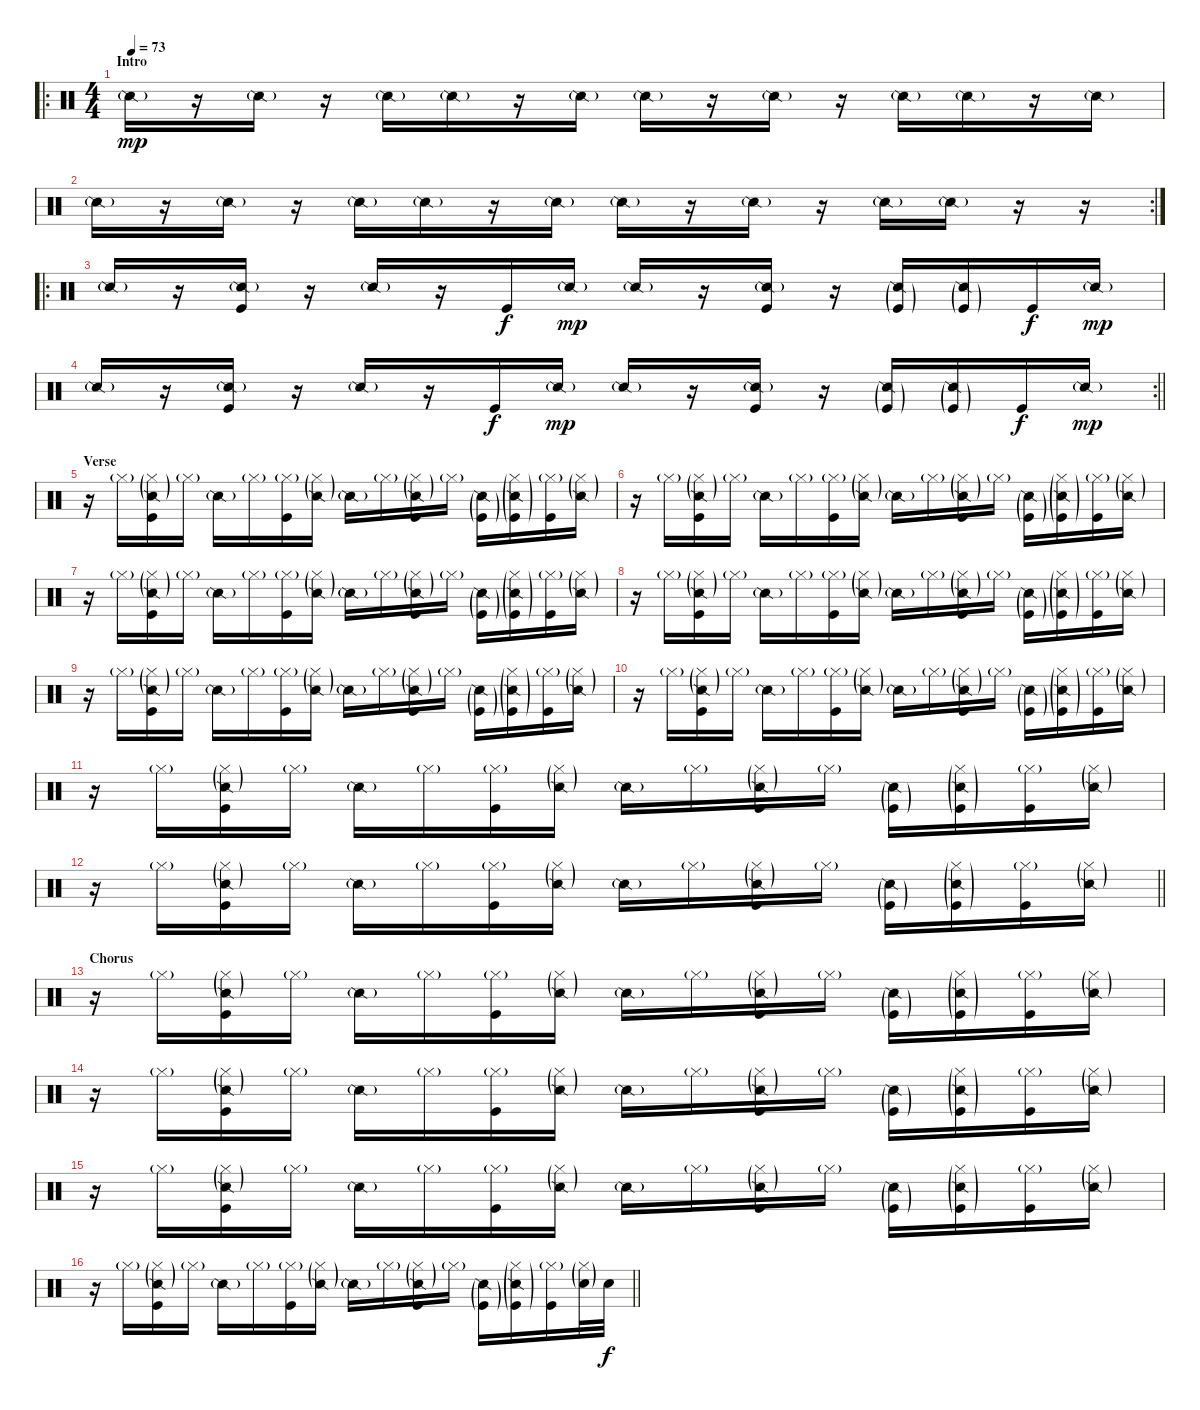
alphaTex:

\track "" {instrument percussion}
\staff {score}
\articulation defaults
\ro
\ts (4 4)
\section ("" "Intro")
\tempo 73
\clef neutral
\ks c "Snare (side stick) 2"{g}.16{dy mp}
r.16 "Snare (side stick) 2"{g}.16 r.16 "Snare (side stick) 2"{g}.16 "Snare (side stick) 2"{g}.16 r.16 "Snare (side stick) 2"{g}.16 "Snare (side stick) 2"{g}.16 r.16 "Snare (side stick) 2"{g}.16 r.16 "Snare (side stick) 2"{g}.16 "Snare (side stick) 2"{g}.16 r.16 "Snare (side stick) 2"{g}.16 |
\rc 2 "Snare (side stick) 2"{g}.16
r.16 "Snare (side stick) 2"{g}.16 r.16 "Snare (side stick) 2"{g}.16 "Snare (side stick) 2"{g}.16 r.16 "Snare (side stick) 2"{g}.16 "Snare (side stick) 2"{g}.16 r.16 "Snare (side stick) 2"{g}.16 r.16 "Snare (side stick) 2"{g}.16 "Snare (side stick) 2"{g}.16 r.16 r.16 |
\ro "Snare (side stick) 2"{g}.16
r.16 ("Kick (hit)" "Snare (side stick) 2"{g}).16 r.16 "Snare (side stick) 2"{g}.16 r.16 "Kick (hit)".16{dy f} "Snare (side stick) 2"{g}.16{dy mp} "Snare (side stick) 2"{g}.16 r.16 ("Kick (hit)" "Snare (side stick) 2"{g}).16 r.16 ("Kick (hit)"{g} "Snare (side stick) 2"{g}).16 ("Kick (hit)"{g} "Snare (side stick) 2"{g}).16 "Kick (hit)".16{dy f} "Snare (side stick) 2"{g}.16{dy mp} |
\rc 2
\barLineRight lightlight "Snare (side stick) 2"{g}.16
r.16 ("Kick (hit)" "Snare (side stick) 2"{g}).16 r.16 "Snare (side stick) 2"{g}.16 r.16 "Kick (hit)".16{dy f} "Snare (side stick) 2"{g}.16{dy mp} "Snare (side stick) 2"{g}.16 r.16 ("Kick (hit)" "Snare (side stick) 2"{g}).16 r.16 ("Kick (hit)"{g} "Snare (side stick) 2"{g}).16 ("Kick (hit)"{g} "Snare (side stick) 2"{g}).16 "Kick (hit)".16{dy f} "Snare (side stick) 2"{g}.16{dy mp} |
\section ("" "Verse")
r.16 "Hi-Hat (closed)"{g}.16 ("Hi-Hat (closed)"{g} "Kick (hit)" "Snare (side stick) 2"{g}).16 "Hi-Hat (closed)"{g}.16 "Snare (side stick) 2"{g}.16 "Hi-Hat (closed)"{g}.16 ("Hi-Hat (closed)"{g} "Kick (hit)").16 ("Hi-Hat (closed)"{g} "Snare (side stick) 2"{g}).16 "Snare (side stick) 2"{g}.16 "Hi-Hat (closed)"{g}.16 ("Hi-Hat (closed)"{g} "Kick (hit)" "Snare (side stick) 2"{g}).16 "Hi-Hat (closed)"{g}.16 ("Kick (hit)"{g} "Snare (side stick) 2"{g}).16 ("Hi-Hat (closed)"{g} "Kick (hit)"{g} "Snare (side stick) 2"{g}).16 ("Hi-Hat (closed)"{g} "Kick (hit)").16 ("Hi-Hat (closed)"{g} "Snare (side stick) 2"{g}).16 |
r.16 "Hi-Hat (closed)"{g}.16 ("Hi-Hat (closed)"{g} "Kick (hit)" "Snare (side stick) 2"{g}).16 "Hi-Hat (closed)"{g}.16 "Snare (side stick) 2"{g}.16 "Hi-Hat (closed)"{g}.16 ("Hi-Hat (closed)"{g} "Kick (hit)").16 ("Hi-Hat (closed)"{g} "Snare (side stick) 2"{g}).16 "Snare (side stick) 2"{g}.16 "Hi-Hat (closed)"{g}.16 ("Hi-Hat (closed)"{g} "Kick (hit)" "Snare (side stick) 2"{g}).16 "Hi-Hat (closed)"{g}.16 ("Kick (hit)"{g} "Snare (side stick) 2"{g}).16 ("Hi-Hat (closed)"{g} "Kick (hit)"{g} "Snare (side stick) 2"{g}).16 ("Hi-Hat (closed)"{g} "Kick (hit)").16 ("Hi-Hat (closed)"{g} "Snare (side stick) 2"{g}).16 |
r.16 "Hi-Hat (closed)"{g}.16 ("Hi-Hat (closed)"{g} "Kick (hit)" "Snare (side stick) 2"{g}).16 "Hi-Hat (closed)"{g}.16 "Snare (side stick) 2"{g}.16 "Hi-Hat (closed)"{g}.16 ("Hi-Hat (closed)"{g} "Kick (hit)").16 ("Hi-Hat (closed)"{g} "Snare (side stick) 2"{g}).16 "Snare (side stick) 2"{g}.16 "Hi-Hat (closed)"{g}.16 ("Hi-Hat (closed)"{g} "Kick (hit)" "Snare (side stick) 2"{g}).16 "Hi-Hat (closed)"{g}.16 ("Kick (hit)"{g} "Snare (side stick) 2"{g}).16 ("Hi-Hat (closed)"{g} "Kick (hit)"{g} "Snare (side stick) 2"{g}).16 ("Hi-Hat (closed)"{g} "Kick (hit)").16 ("Hi-Hat (closed)"{g} "Snare (side stick) 2"{g}).16 |
r.16 "Hi-Hat (closed)"{g}.16 ("Hi-Hat (closed)"{g} "Kick (hit)" "Snare (side stick) 2"{g}).16 "Hi-Hat (closed)"{g}.16 "Snare (side stick) 2"{g}.16 "Hi-Hat (closed)"{g}.16 ("Hi-Hat (closed)"{g} "Kick (hit)").16 ("Hi-Hat (closed)"{g} "Snare (side stick) 2"{g}).16 "Snare (side stick) 2"{g}.16 "Hi-Hat (closed)"{g}.16 ("Hi-Hat (closed)"{g} "Kick (hit)" "Snare (side stick) 2"{g}).16 "Hi-Hat (closed)"{g}.16 ("Kick (hit)"{g} "Snare (side stick) 2"{g}).16 ("Hi-Hat (closed)"{g} "Kick (hit)"{g} "Snare (side stick) 2"{g}).16 ("Hi-Hat (closed)"{g} "Kick (hit)").16 ("Hi-Hat (closed)"{g} "Snare (side stick) 2"{g}).16 |
r.16 "Hi-Hat (closed)"{g}.16 ("Hi-Hat (closed)"{g} "Kick (hit)" "Snare (side stick) 2"{g}).16 "Hi-Hat (closed)"{g}.16 "Snare (side stick) 2"{g}.16 "Hi-Hat (closed)"{g}.16 ("Hi-Hat (closed)"{g} "Kick (hit)").16 ("Hi-Hat (closed)"{g} "Snare (side stick) 2"{g}).16 "Snare (side stick) 2"{g}.16 "Hi-Hat (closed)"{g}.16 ("Hi-Hat (closed)"{g} "Kick (hit)" "Snare (side stick) 2"{g}).16 "Hi-Hat (closed)"{g}.16 ("Kick (hit)"{g} "Snare (side stick) 2"{g}).16 ("Hi-Hat (closed)"{g} "Kick (hit)"{g} "Snare (side stick) 2"{g}).16 ("Hi-Hat (closed)"{g} "Kick (hit)").16 ("Hi-Hat (closed)"{g} "Snare (side stick) 2"{g}).16 |
r.16 "Hi-Hat (closed)"{g}.16 ("Hi-Hat (closed)"{g} "Kick (hit)" "Snare (side stick) 2"{g}).16 "Hi-Hat (closed)"{g}.16 "Snare (side stick) 2"{g}.16 "Hi-Hat (closed)"{g}.16 ("Hi-Hat (closed)"{g} "Kick (hit)").16 ("Hi-Hat (closed)"{g} "Snare (side stick) 2"{g}).16 "Snare (side stick) 2"{g}.16 "Hi-Hat (closed)"{g}.16 ("Hi-Hat (closed)"{g} "Kick (hit)" "Snare (side stick) 2"{g}).16 "Hi-Hat (closed)"{g}.16 ("Kick (hit)"{g} "Snare (side stick) 2"{g}).16 ("Hi-Hat (closed)"{g} "Kick (hit)"{g} "Snare (side stick) 2"{g}).16 ("Hi-Hat (closed)"{g} "Kick (hit)").16 ("Hi-Hat (closed)"{g} "Snare (side stick) 2"{g}).16 |
r.16 "Hi-Hat (closed)"{g}.16 ("Hi-Hat (closed)"{g} "Kick (hit)" "Snare (side stick) 2"{g}).16 "Hi-Hat (closed)"{g}.16 "Snare (side stick) 2"{g}.16 "Hi-Hat (closed)"{g}.16 ("Hi-Hat (closed)"{g} "Kick (hit)").16 ("Hi-Hat (closed)"{g} "Snare (side stick) 2"{g}).16 "Snare (side stick) 2"{g}.16 "Hi-Hat (closed)"{g}.16 ("Hi-Hat (closed)"{g} "Kick (hit)" "Snare (side stick) 2"{g}).16 "Hi-Hat (closed)"{g}.16 ("Kick (hit)"{g} "Snare (side stick) 2"{g}).16 ("Hi-Hat (closed)"{g} "Kick (hit)"{g} "Snare (side stick) 2"{g}).16 ("Hi-Hat (closed)"{g} "Kick (hit)").16 ("Hi-Hat (closed)"{g} "Snare (side stick) 2"{g}).16 |
\barLineRight lightlight
r.16 "Hi-Hat (closed)"{g}.16 ("Hi-Hat (closed)"{g} "Kick (hit)" "Snare (side stick) 2"{g}).16 "Hi-Hat (closed)"{g}.16 "Snare (side stick) 2"{g}.16 "Hi-Hat (closed)"{g}.16 ("Hi-Hat (closed)"{g} "Kick (hit)").16 ("Hi-Hat (closed)"{g} "Snare (side stick) 2"{g}).16 "Snare (side stick) 2"{g}.16 "Hi-Hat (closed)"{g}.16 ("Hi-Hat (closed)"{g} "Kick (hit)" "Snare (side stick) 2"{g}).16 "Hi-Hat (closed)"{g}.16 ("Kick (hit)"{g} "Snare (side stick) 2"{g}).16 ("Hi-Hat (closed)"{g} "Kick (hit)"{g} "Snare (side stick) 2"{g}).16 ("Hi-Hat (closed)"{g} "Kick (hit)").16 ("Hi-Hat (closed)"{g} "Snare (side stick) 2"{g}).16 |
\section ("" "Chorus")
r.16{volume 12} "Hi-Hat (closed)"{g}.16 ("Hi-Hat (closed)"{g} "Kick (hit)" "Snare (side stick) 2"{g}).16 "Hi-Hat (closed)"{g}.16 "Snare (side stick) 2"{g}.16 "Hi-Hat (closed)"{g}.16 ("Hi-Hat (closed)"{g} "Kick (hit)").16 ("Hi-Hat (closed)"{g} "Snare (side stick) 2"{g}).16 "Snare (side stick) 2"{g}.16 "Hi-Hat (closed)"{g}.16 ("Hi-Hat (closed)"{g} "Kick (hit)" "Snare (side stick) 2"{g}).16 "Hi-Hat (closed)"{g}.16 ("Kick (hit)"{g} "Snare (side stick) 2"{g}).16 ("Hi-Hat (closed)"{g} "Kick (hit)"{g} "Snare (side stick) 2"{g}).16 ("Hi-Hat (closed)"{g} "Kick (hit)").16 ("Hi-Hat (closed)"{g} "Snare (side stick) 2"{g}).16 |
r.16 "Hi-Hat (closed)"{g}.16 ("Hi-Hat (closed)"{g} "Kick (hit)" "Snare (side stick) 2"{g}).16 "Hi-Hat (closed)"{g}.16 "Snare (side stick) 2"{g}.16 "Hi-Hat (closed)"{g}.16 ("Hi-Hat (closed)"{g} "Kick (hit)").16 ("Hi-Hat (closed)"{g} "Snare (side stick) 2"{g}).16 "Snare (side stick) 2"{g}.16 "Hi-Hat (closed)"{g}.16 ("Hi-Hat (closed)"{g} "Kick (hit)" "Snare (side stick) 2"{g}).16 "Hi-Hat (closed)"{g}.16 ("Kick (hit)"{g} "Snare (side stick) 2"{g}).16 ("Hi-Hat (closed)"{g} "Kick (hit)"{g} "Snare (side stick) 2"{g}).16 ("Hi-Hat (closed)"{g} "Kick (hit)").16 ("Hi-Hat (closed)"{g} "Snare (side stick) 2"{g}).16 |
r.16 "Hi-Hat (closed)"{g}.16 ("Hi-Hat (closed)"{g} "Kick (hit)" "Snare (side stick) 2"{g}).16 "Hi-Hat (closed)"{g}.16 "Snare (side stick) 2"{g}.16 "Hi-Hat (closed)"{g}.16 ("Hi-Hat (closed)"{g} "Kick (hit)").16 ("Hi-Hat (closed)"{g} "Snare (side stick) 2"{g}).16 "Snare (side stick) 2"{g}.16 "Hi-Hat (closed)"{g}.16 ("Hi-Hat (closed)"{g} "Kick (hit)" "Snare (side stick) 2"{g}).16 "Hi-Hat (closed)"{g}.16 ("Kick (hit)"{g} "Snare (side stick) 2"{g}).16 ("Hi-Hat (closed)"{g} "Kick (hit)"{g} "Snare (side stick) 2"{g}).16 ("Hi-Hat (closed)"{g} "Kick (hit)").16 ("Hi-Hat (closed)"{g} "Snare (side stick) 2"{g}).16 |
\barLineRight lightlight
r.16 "Hi-Hat (closed)"{g}.16 ("Hi-Hat (closed)"{g} "Kick (hit)" "Snare (side stick) 2"{g}).16 "Hi-Hat (closed)"{g}.16 "Snare (side stick) 2"{g}.16 "Hi-Hat (closed)"{g}.16 ("Hi-Hat (closed)"{g} "Kick (hit)").16 ("Hi-Hat (closed)"{g} "Snare (side stick) 2"{g}).16 "Snare (side stick) 2"{g}.16 "Hi-Hat (closed)"{g}.16 ("Hi-Hat (closed)"{g} "Kick (hit)" "Snare (side stick) 2"{g}).16 "Hi-Hat (closed)"{g}.16 ("Kick (hit)"{g} "Snare (side stick) 2"{g}).16 ("Hi-Hat (closed)"{g} "Kick (hit)"{g} "Snare (side stick) 2"{g}).16 ("Hi-Hat (closed)"{g} "Kick (hit)").16 ("Hi-Hat (closed)"{g} "Snare (hit) 2"{g}).32 "Snare (hit) 2".32{dy f}
